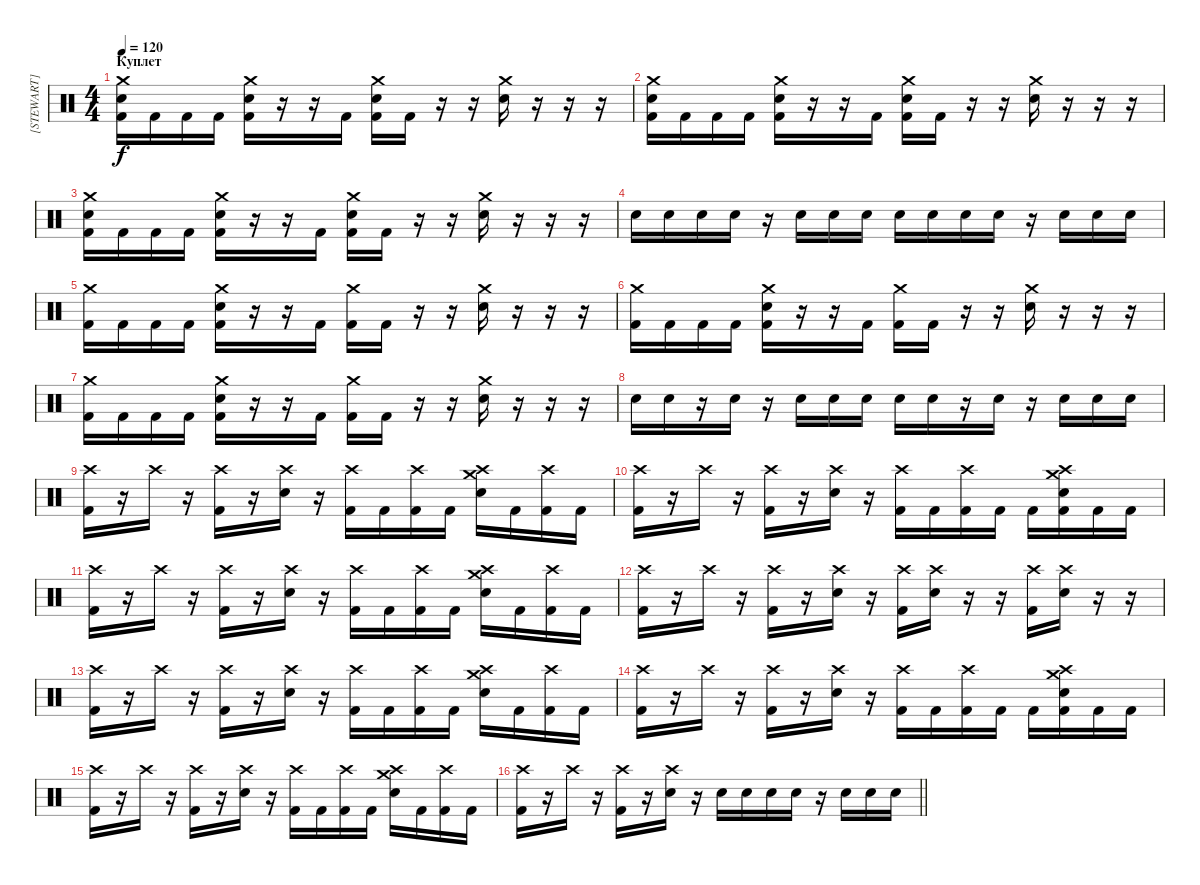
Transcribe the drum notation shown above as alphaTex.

\track ("[STEWART]" "[STEWART]") {instrument percussion}
\staff {score}
\articulation defaults
\ts (4 4)
\section ("" "Куплет")
\tempo 120
\clef neutral
\ks c
("Crash medium (hit)" "Electric Snare (hit)" "Kick (hit) 2").16{dy f} "Kick (hit) 2".16 "Kick (hit) 2".16 "Kick (hit) 2".16 ("Crash medium (hit)" "Electric Snare (hit)" "Kick (hit) 2").16 r.16 r.16 "Kick (hit) 2".16 ("Crash medium (hit)" "Electric Snare (hit)" "Kick (hit) 2").16 "Kick (hit) 2".16 r.16 r.16 ("Crash medium (hit)" "Electric Snare (hit)").16 r.16 r.16 r.16 |
("Crash medium (hit)" "Electric Snare (hit)" "Kick (hit) 2").16 "Kick (hit) 2".16 "Kick (hit) 2".16 "Kick (hit) 2".16 ("Crash medium (hit)" "Electric Snare (hit)" "Kick (hit) 2").16 r.16 r.16 "Kick (hit) 2".16 ("Crash medium (hit)" "Electric Snare (hit)" "Kick (hit) 2").16 "Kick (hit) 2".16 r.16 r.16 ("Crash medium (hit)" "Electric Snare (hit)").16 r.16 r.16 r.16 |
("Crash medium (hit)" "Electric Snare (hit)" "Kick (hit) 2").16 "Kick (hit) 2".16 "Kick (hit) 2".16 "Kick (hit) 2".16 ("Crash medium (hit)" "Electric Snare (hit)" "Kick (hit) 2").16 r.16 r.16 "Kick (hit) 2".16 ("Crash medium (hit)" "Electric Snare (hit)" "Kick (hit) 2").16 "Kick (hit) 2".16 r.16 r.16 ("Crash medium (hit)" "Electric Snare (hit)").16 r.16 r.16 r.16 |
"Electric Snare (hit)".16 "Electric Snare (hit)".16 "Electric Snare (hit)".16 "Electric Snare (hit)".16 r.16 "Electric Snare (hit)".16 "Electric Snare (hit)".16 "Electric Snare (hit)".16 "Electric Snare (hit)".16 "Electric Snare (hit)".16 "Electric Snare (hit)".16 "Electric Snare (hit)".16 r.16 "Electric Snare (hit)".16 "Electric Snare (hit)".16 "Electric Snare (hit)".16 |
("Crash medium (hit)" "Kick (hit) 2").16 "Kick (hit) 2".16 "Kick (hit) 2".16 "Kick (hit) 2".16 ("Crash medium (hit)" "Electric Snare (hit)" "Kick (hit) 2").16 r.16 r.16 "Kick (hit) 2".16 ("Crash medium (hit)" "Kick (hit) 2").16 "Kick (hit) 2".16 r.16 r.16 ("Crash medium (hit)" "Electric Snare (hit)").16 r.16 r.16 r.16 |
("Crash medium (hit)" "Kick (hit) 2").16 "Kick (hit) 2".16 "Kick (hit) 2".16 "Kick (hit) 2".16 ("Crash medium (hit)" "Electric Snare (hit)" "Kick (hit) 2").16 r.16 r.16 "Kick (hit) 2".16 ("Crash medium (hit)" "Kick (hit) 2").16 "Kick (hit) 2".16 r.16 r.16 ("Crash medium (hit)" "Electric Snare (hit)").16 r.16 r.16 r.16 |
("Crash medium (hit)" "Kick (hit) 2").16 "Kick (hit) 2".16 "Kick (hit) 2".16 "Kick (hit) 2".16 ("Crash medium (hit)" "Electric Snare (hit)" "Kick (hit) 2").16 r.16 r.16 "Kick (hit) 2".16 ("Crash medium (hit)" "Kick (hit) 2").16 "Kick (hit) 2".16 r.16 r.16 ("Crash medium (hit)" "Electric Snare (hit)").16 r.16 r.16 r.16 |
"Electric Snare (hit)".16 "Electric Snare (hit)".16 r.16 "Electric Snare (hit)".16 r.16 "Electric Snare (hit)".16 "Electric Snare (hit)".16 "Electric Snare (hit)".16 "Electric Snare (hit)".16 "Electric Snare (hit)".16 r.16 "Electric Snare (hit)".16 r.16 "Electric Snare (hit)".16 "Electric Snare (hit)".16 "Electric Snare (hit)".16 |
("Crash high (hit)" "Kick (hit) 2").16 r.16 "Crash high (hit)".16 r.16 ("Crash high (hit)" "Kick (hit) 2").16 r.16 ("Crash high (hit)" "Electric Snare (hit)").16 r.16 ("Crash high (hit)" "Kick (hit) 2").16 "Kick (hit) 2".16 ("Crash high (hit)" "Kick (hit) 2").16 "Kick (hit) 2".16 ("Crash high (hit)" "Crash medium (hit)" "Electric Snare (hit)").16 "Kick (hit) 2".16 ("Crash high (hit)" "Kick (hit) 2").16 "Kick (hit) 2".16 |
("Crash high (hit)" "Kick (hit) 2").16 r.16 "Crash high (hit)".16 r.16 ("Crash high (hit)" "Kick (hit) 2").16 r.16 ("Crash high (hit)" "Electric Snare (hit)").16 r.16 ("Crash high (hit)" "Kick (hit) 2").16 "Kick (hit) 2".16 ("Crash high (hit)" "Kick (hit) 2").16 "Kick (hit) 2".16 "Kick (hit) 2".16 ("Crash high (hit)" "Crash medium (hit)" "Electric Snare (hit)" "Kick (hit) 2").16 "Kick (hit) 2".16 "Kick (hit) 2".16 |
("Crash high (hit)" "Kick (hit) 2").16 r.16 "Crash high (hit)".16 r.16 ("Crash high (hit)" "Kick (hit) 2").16 r.16 ("Crash high (hit)" "Electric Snare (hit)").16 r.16 ("Crash high (hit)" "Kick (hit) 2").16 "Kick (hit) 2".16 ("Crash high (hit)" "Kick (hit) 2").16 "Kick (hit) 2".16 ("Crash high (hit)" "Crash medium (hit)" "Electric Snare (hit)").16 "Kick (hit) 2".16 ("Crash high (hit)" "Kick (hit) 2").16 "Kick (hit) 2".16 |
("Crash high (hit)" "Kick (hit) 2").16 r.16 "Crash high (hit)".16 r.16 ("Crash high (hit)" "Kick (hit) 2").16 r.16 ("Crash high (hit)" "Electric Snare (hit)").16 r.16 ("Crash high (hit)" "Kick (hit) 2").16 ("Crash high (hit)" "Electric Snare (hit)").16 r.16 r.16 ("Crash high (hit)" "Kick (hit) 2").16 ("Crash high (hit)" "Electric Snare (hit)").16 r.16 r.16 |
("Crash high (hit)" "Kick (hit) 2").16 r.16 "Crash high (hit)".16 r.16 ("Crash high (hit)" "Kick (hit) 2").16 r.16 ("Crash high (hit)" "Electric Snare (hit)").16 r.16 ("Crash high (hit)" "Kick (hit) 2").16 "Kick (hit) 2".16 ("Crash high (hit)" "Kick (hit) 2").16 "Kick (hit) 2".16 ("Crash high (hit)" "Crash medium (hit)" "Electric Snare (hit)").16 "Kick (hit) 2".16 ("Crash high (hit)" "Kick (hit) 2").16 "Kick (hit) 2".16 |
("Crash high (hit)" "Kick (hit) 2").16 r.16 "Crash high (hit)".16 r.16 ("Crash high (hit)" "Kick (hit) 2").16 r.16 ("Crash high (hit)" "Electric Snare (hit)").16 r.16 ("Crash high (hit)" "Kick (hit) 2").16 "Kick (hit) 2".16 ("Crash high (hit)" "Kick (hit) 2").16 "Kick (hit) 2".16 "Kick (hit) 2".16 ("Crash high (hit)" "Crash medium (hit)" "Electric Snare (hit)" "Kick (hit) 2").16 "Kick (hit) 2".16 "Kick (hit) 2".16 |
("Crash high (hit)" "Kick (hit) 2").16 r.16 "Crash high (hit)".16 r.16 ("Crash high (hit)" "Kick (hit) 2").16 r.16 ("Crash high (hit)" "Electric Snare (hit)").16 r.16 ("Crash high (hit)" "Kick (hit) 2").16 "Kick (hit) 2".16 ("Crash high (hit)" "Kick (hit) 2").16 "Kick (hit) 2".16 ("Crash high (hit)" "Crash medium (hit)" "Electric Snare (hit)").16 "Kick (hit) 2".16 ("Crash high (hit)" "Kick (hit) 2").16 "Kick (hit) 2".16 |
\barLineRight lightlight
("Crash high (hit)" "Kick (hit) 2").16 r.16 "Crash high (hit)".16 r.16 ("Crash high (hit)" "Kick (hit) 2").16 r.16 ("Crash high (hit)" "Electric Snare (hit)").16 r.16 "Electric Snare (hit)".16 "Electric Snare (hit)".16 "Electric Snare (hit)".16 "Electric Snare (hit)".16 r.16 "Electric Snare (hit)".16 "Electric Snare (hit)".16 "Electric Snare (hit)".16
